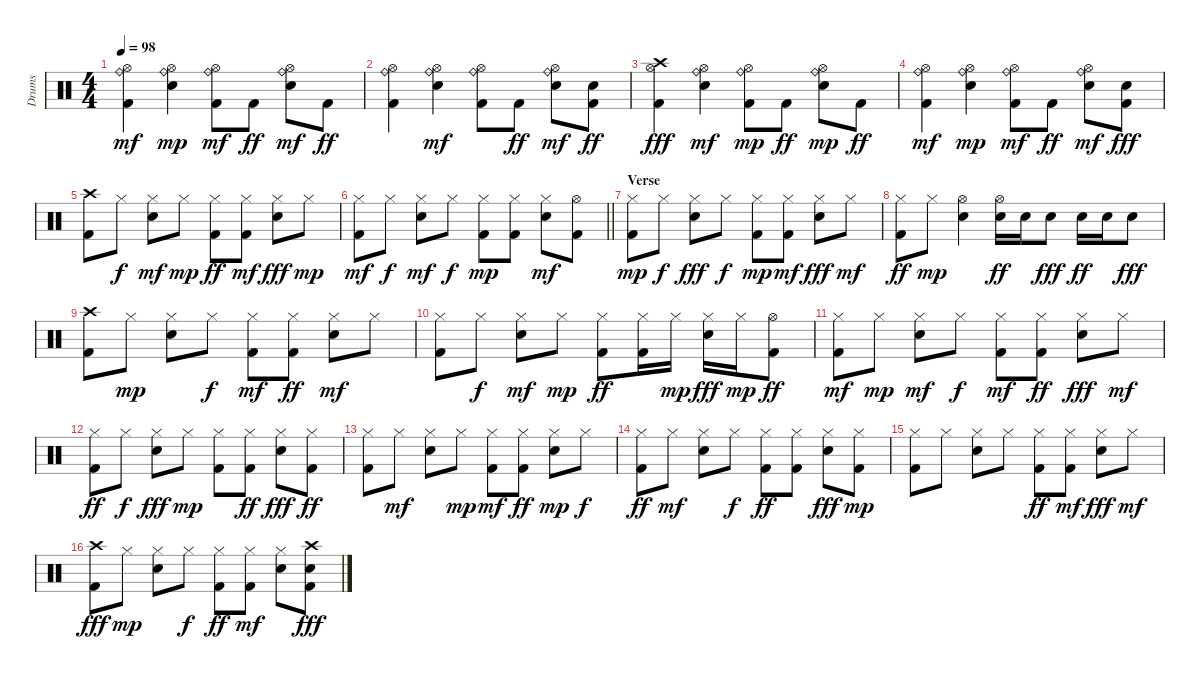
\track ("Drums" "Drums") {instrument percussion}
\staff {score}
\articulation defaults
\ts (4 4)
\tempo 98
\clef neutral
\ks c
("Kick (hit) 2" "Hi-Hat (open)" "Ride (bell)").4{dy mf} ("Electric Snare (hit)" "Hi-Hat (open)" "Ride (bell)").4{dy mp} ("Kick (hit) 2" "Hi-Hat (open)" "Ride (bell)").8{dy mf} "Kick (hit) 2".8{dy ff} ("Electric Snare (hit)" "Hi-Hat (open)" "Ride (bell)").8{dy mf} "Kick (hit) 2".8{dy ff} |
("Kick (hit) 2" "Hi-Hat (open)" "Ride (bell)").4 ("Electric Snare (hit)" "Hi-Hat (open)" "Ride (bell)").4{dy mf} ("Kick (hit) 2" "Hi-Hat (open)" "Ride (bell)").8 "Kick (hit) 2".8{dy ff} ("Electric Snare (hit)" "Hi-Hat (open)" "Ride (bell)").8{dy mf} ("Kick (hit) 2" "Electric Snare (hit)").8{dy ff} |
("Kick (hit) 2" "Hi-Hat (open)" "Crash high (hit)").4{dy fff} ("Electric Snare (hit)" "Hi-Hat (open)" "Ride (bell)").4{dy mf} ("Kick (hit) 2" "Hi-Hat (open)" "Ride (bell)").8{dy mp} "Kick (hit) 2".8{dy ff} ("Electric Snare (hit)" "Hi-Hat (open)" "Ride (bell)").8{dy mp} "Kick (hit) 2".8{dy ff} |
("Kick (hit) 2" "Hi-Hat (open)" "Ride (bell)").4{dy mf} ("Electric Snare (hit)" "Hi-Hat (open)" "Ride (bell)").4{dy mp} ("Kick (hit) 2" "Hi-Hat (open)" "Ride (bell)").8{dy mf} "Kick (hit) 2".8{dy ff} ("Electric Snare (hit)" "Hi-Hat (open)" "Ride (bell)").8{dy mf} ("Kick (hit) 2" "Electric Snare (hit)").8{dy fff} |
("Kick (hit) 2" "Crash high (hit)").8 "Hi-Hat (closed)".8{dy f} ("Electric Snare (hit)" "Hi-Hat (closed)").8{dy mf} "Hi-Hat (closed)".8{dy mp} ("Kick (hit) 2" "Hi-Hat (closed)").8{dy ff} ("Kick (hit) 2" "Hi-Hat (closed)").8{dy mf} ("Electric Snare (hit)" "Hi-Hat (closed)").8{dy fff} "Hi-Hat (closed)".8{dy mp} |
\barLineRight lightlight
("Kick (hit) 2" "Hi-Hat (closed)").8{dy mf} "Hi-Hat (closed)".8{dy f} ("Electric Snare (hit)" "Hi-Hat (closed)").8{dy mf} "Hi-Hat (closed)".8{dy f} ("Kick (hit) 2" "Hi-Hat (closed)").8{dy mp} ("Kick (hit) 2" "Hi-Hat (closed)").8 ("Electric Snare (hit)" "Hi-Hat (closed)").8{dy mf} ("Kick (hit) 2" "Hi-Hat (open)").8 |
\section ("" "Verse")
("Kick (hit) 2" "Hi-Hat (closed)").8{dy mp} "Hi-Hat (closed)".8{dy f} ("Electric Snare (hit)" "Hi-Hat (closed)").8{dy fff} "Hi-Hat (closed)".8{dy f} ("Kick (hit) 2" "Hi-Hat (closed)").8{dy mp} ("Kick (hit) 2" "Hi-Hat (closed)").8{dy mf} ("Electric Snare (hit)" "Hi-Hat (closed)").8{dy fff} "Hi-Hat (closed)".8{dy mf} |
("Kick (hit) 2" "Hi-Hat (closed)").8{dy ff} "Hi-Hat (closed)".8{dy mp} ("Electric Snare (hit)" "Hi-Hat (open)").4 ("Electric Snare (hit)" "Hi-Hat (open)").16{dy ff} "Electric Snare (hit)".16 "Electric Snare (hit)".8{dy fff} "Electric Snare (hit)".16{dy ff} "Electric Snare (hit)".16 "Electric Snare (hit)".8{dy fff} |
("Kick (hit) 2" "Crash high (hit)").8 "Hi-Hat (closed)".8{dy mp} ("Electric Snare (hit)" "Hi-Hat (closed)").8 "Hi-Hat (closed)".8{dy f} ("Kick (hit) 2" "Hi-Hat (closed)").8{dy mf} ("Kick (hit) 2" "Hi-Hat (closed)").8{dy ff} ("Electric Snare (hit)" "Hi-Hat (closed)").8{dy mf} "Hi-Hat (closed)".8 |
("Kick (hit) 2" "Hi-Hat (closed)").8 "Hi-Hat (closed)".8{dy f} ("Electric Snare (hit)" "Hi-Hat (closed)").8{dy mf} "Hi-Hat (closed)".8{dy mp} ("Kick (hit) 2" "Hi-Hat (closed)").8{dy ff} ("Kick (hit) 2" "Hi-Hat (closed)").16 "Hi-Hat (closed)".16{dy mp} ("Electric Snare (hit)" "Hi-Hat (closed)").16{dy fff} "Hi-Hat (closed)".16{dy mp} ("Kick (hit) 2" "Hi-Hat (open)").8{dy ff} |
("Kick (hit) 2" "Hi-Hat (closed)").8{dy mf} "Hi-Hat (closed)".8{dy mp} ("Electric Snare (hit)" "Hi-Hat (closed)").8{dy mf} "Hi-Hat (closed)".8{dy f} ("Kick (hit) 2" "Hi-Hat (closed)").8{dy mf} ("Kick (hit) 2" "Hi-Hat (closed)").8{dy ff} ("Electric Snare (hit)" "Hi-Hat (closed)").8{dy fff} "Hi-Hat (closed)".8{dy mf} |
("Kick (hit) 2" "Hi-Hat (closed)").8{dy ff} "Hi-Hat (closed)".8{dy f} ("Electric Snare (hit)" "Hi-Hat (closed)").8{dy fff} "Hi-Hat (closed)".8{dy mp} ("Kick (hit) 2" "Hi-Hat (closed)").8 ("Kick (hit) 2" "Hi-Hat (closed)").8{dy ff} ("Electric Snare (hit)" "Hi-Hat (closed)").8{dy fff} ("Kick (hit) 2" "Hi-Hat (closed)").8{dy ff} |
("Kick (hit) 2" "Hi-Hat (closed)").8 "Hi-Hat (closed)".8{dy mf} ("Electric Snare (hit)" "Hi-Hat (closed)").8 "Hi-Hat (closed)".8{dy mp} ("Kick (hit) 2" "Hi-Hat (closed)").8{dy mf} ("Kick (hit) 2" "Hi-Hat (closed)").8{dy ff} ("Electric Snare (hit)" "Hi-Hat (closed)").8{dy mp} "Hi-Hat (closed)".8{dy f} |
("Kick (hit) 2" "Hi-Hat (closed)").8{dy ff} "Hi-Hat (closed)".8{dy mf} ("Electric Snare (hit)" "Hi-Hat (closed)").8 "Hi-Hat (closed)".8{dy f} ("Kick (hit) 2" "Hi-Hat (closed)").8{dy ff} ("Kick (hit) 2" "Hi-Hat (closed)").8 ("Electric Snare (hit)" "Hi-Hat (closed)").8{dy fff} ("Kick (hit) 2" "Hi-Hat (closed)").8{dy mp} |
("Kick (hit) 2" "Hi-Hat (closed)").8 "Hi-Hat (closed)".8 ("Electric Snare (hit)" "Hi-Hat (closed)").8 "Hi-Hat (closed)".8 ("Kick (hit) 2" "Hi-Hat (closed)").8{dy ff} ("Kick (hit) 2" "Hi-Hat (closed)").8{dy mf} ("Electric Snare (hit)" "Hi-Hat (closed)").8{dy fff} "Hi-Hat (closed)".8{dy mf} |
("Kick (hit) 2" "Crash high (hit)").8{dy fff} "Hi-Hat (closed)".8{dy mp} ("Electric Snare (hit)" "Hi-Hat (closed)").8 "Hi-Hat (closed)".8{dy f} ("Kick (hit) 2" "Hi-Hat (closed)").8{dy ff} ("Kick (hit) 2" "Hi-Hat (closed)").8{dy mf} ("Electric Snare (hit)" "Hi-Hat (closed)").8 ("Kick (hit) 2" "Electric Snare (hit)" "Crash high (hit)").8{dy fff}
